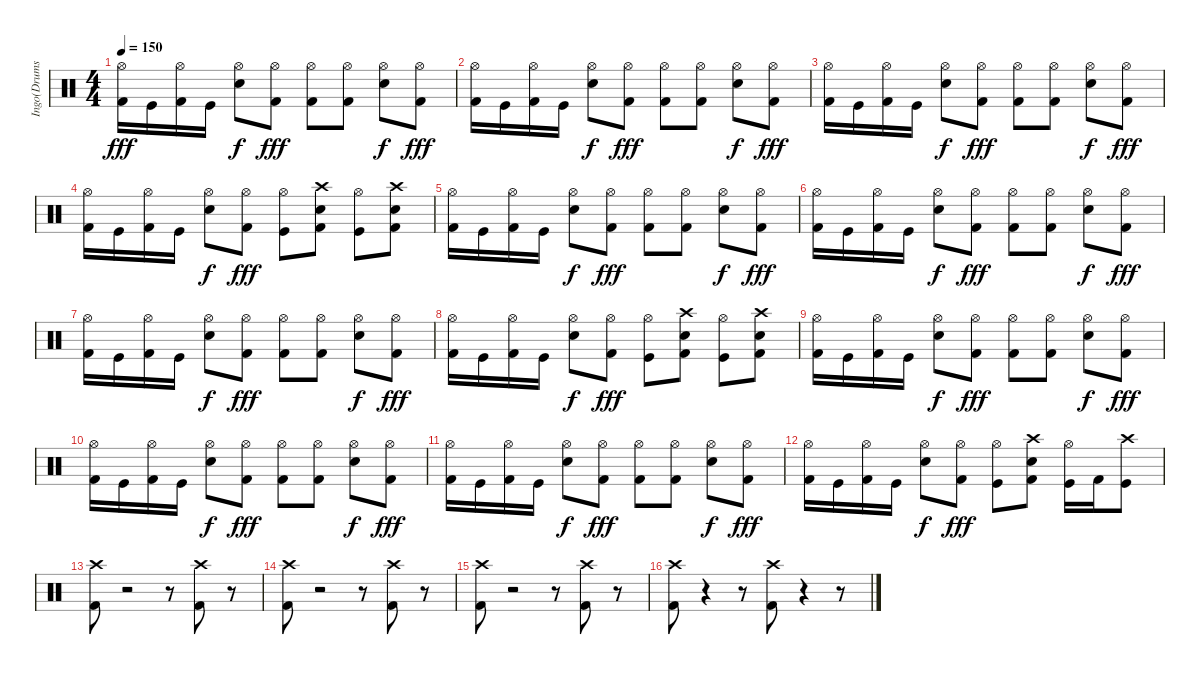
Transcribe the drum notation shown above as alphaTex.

\track ("Ingo(Drums)" "Ingo(Drums") {instrument percussion}
\staff {score}
\articulation defaults
\ts (4 4)
\tempo 150
\clef neutral
\ks c
("Hi-Hat (open)" "Kick (hit) 2").16{dy fff} "Kick (hit)".16 ("Hi-Hat (open)" "Kick (hit) 2").16 "Kick (hit)".16 ("Hi-Hat (open)" "Electric Snare (hit)").8{dy f} ("Hi-Hat (open)" "Kick (hit) 2").8{dy fff} ("Hi-Hat (open)" "Kick (hit) 2").8 ("Hi-Hat (open)" "Kick (hit) 2").8 ("Hi-Hat (open)" "Electric Snare (hit)").8{dy f} ("Hi-Hat (open)" "Kick (hit) 2").8{dy fff} |
("Hi-Hat (open)" "Kick (hit) 2").16 "Kick (hit)".16 ("Hi-Hat (open)" "Kick (hit) 2").16 "Kick (hit)".16 ("Hi-Hat (open)" "Electric Snare (hit)").8{dy f} ("Hi-Hat (open)" "Kick (hit) 2").8{dy fff} ("Hi-Hat (open)" "Kick (hit) 2").8 ("Hi-Hat (open)" "Kick (hit) 2").8 ("Hi-Hat (open)" "Electric Snare (hit)").8{dy f} ("Hi-Hat (open)" "Kick (hit) 2").8{dy fff} |
("Hi-Hat (open)" "Kick (hit) 2").16 "Kick (hit)".16 ("Hi-Hat (open)" "Kick (hit) 2").16 "Kick (hit)".16 ("Hi-Hat (open)" "Electric Snare (hit)").8{dy f} ("Hi-Hat (open)" "Kick (hit) 2").8{dy fff} ("Hi-Hat (open)" "Kick (hit) 2").8 ("Hi-Hat (open)" "Kick (hit) 2").8 ("Hi-Hat (open)" "Electric Snare (hit)").8{dy f} ("Hi-Hat (open)" "Kick (hit) 2").8{dy fff} |
("Hi-Hat (open)" "Kick (hit) 2").16 "Kick (hit)".16 ("Hi-Hat (open)" "Kick (hit) 2").16 "Kick (hit)".16 ("Hi-Hat (open)" "Electric Snare (hit)").8{dy f} ("Hi-Hat (open)" "Kick (hit) 2").8{dy fff} ("Hi-Hat (open)" "Kick (hit)").8 ("Crash high (hit)" "Electric Snare (hit)" "Kick (hit) 2").8 ("Hi-Hat (open)" "Kick (hit)").8 ("Crash high (hit)" "Electric Snare (hit)" "Kick (hit) 2").8 |
("Hi-Hat (open)" "Kick (hit) 2").16 "Kick (hit)".16 ("Hi-Hat (open)" "Kick (hit) 2").16 "Kick (hit)".16 ("Hi-Hat (open)" "Electric Snare (hit)").8{dy f} ("Hi-Hat (open)" "Kick (hit) 2").8{dy fff} ("Hi-Hat (open)" "Kick (hit) 2").8 ("Hi-Hat (open)" "Kick (hit) 2").8 ("Hi-Hat (open)" "Electric Snare (hit)").8{dy f} ("Hi-Hat (open)" "Kick (hit) 2").8{dy fff} |
("Hi-Hat (open)" "Kick (hit) 2").16 "Kick (hit)".16 ("Hi-Hat (open)" "Kick (hit) 2").16 "Kick (hit)".16 ("Hi-Hat (open)" "Electric Snare (hit)").8{dy f} ("Hi-Hat (open)" "Kick (hit) 2").8{dy fff} ("Hi-Hat (open)" "Kick (hit) 2").8 ("Hi-Hat (open)" "Kick (hit) 2").8 ("Hi-Hat (open)" "Electric Snare (hit)").8{dy f} ("Hi-Hat (open)" "Kick (hit) 2").8{dy fff} |
("Hi-Hat (open)" "Kick (hit) 2").16 "Kick (hit)".16 ("Hi-Hat (open)" "Kick (hit) 2").16 "Kick (hit)".16 ("Hi-Hat (open)" "Electric Snare (hit)").8{dy f} ("Hi-Hat (open)" "Kick (hit) 2").8{dy fff} ("Hi-Hat (open)" "Kick (hit) 2").8 ("Hi-Hat (open)" "Kick (hit) 2").8 ("Hi-Hat (open)" "Electric Snare (hit)").8{dy f} ("Hi-Hat (open)" "Kick (hit) 2").8{dy fff} |
("Hi-Hat (open)" "Kick (hit) 2").16 "Kick (hit)".16 ("Hi-Hat (open)" "Kick (hit) 2").16 "Kick (hit)".16 ("Hi-Hat (open)" "Electric Snare (hit)").8{dy f} ("Hi-Hat (open)" "Kick (hit) 2").8{dy fff} ("Hi-Hat (open)" "Kick (hit)").8 ("Crash high (hit)" "Electric Snare (hit)" "Kick (hit) 2").8 ("Hi-Hat (open)" "Kick (hit)").8 ("Crash high (hit)" "Electric Snare (hit)" "Kick (hit) 2").8 |
("Hi-Hat (open)" "Kick (hit) 2").16 "Kick (hit)".16 ("Hi-Hat (open)" "Kick (hit) 2").16 "Kick (hit)".16 ("Hi-Hat (open)" "Electric Snare (hit)").8{dy f} ("Hi-Hat (open)" "Kick (hit) 2").8{dy fff} ("Hi-Hat (open)" "Kick (hit) 2").8 ("Hi-Hat (open)" "Kick (hit) 2").8 ("Hi-Hat (open)" "Electric Snare (hit)").8{dy f} ("Hi-Hat (open)" "Kick (hit) 2").8{dy fff} |
("Hi-Hat (open)" "Kick (hit) 2").16 "Kick (hit)".16 ("Hi-Hat (open)" "Kick (hit) 2").16 "Kick (hit)".16 ("Hi-Hat (open)" "Electric Snare (hit)").8{dy f} ("Hi-Hat (open)" "Kick (hit) 2").8{dy fff} ("Hi-Hat (open)" "Kick (hit) 2").8 ("Hi-Hat (open)" "Kick (hit) 2").8 ("Hi-Hat (open)" "Electric Snare (hit)").8{dy f} ("Hi-Hat (open)" "Kick (hit) 2").8{dy fff} |
("Hi-Hat (open)" "Kick (hit) 2").16 "Kick (hit)".16 ("Hi-Hat (open)" "Kick (hit) 2").16 "Kick (hit)".16 ("Hi-Hat (open)" "Electric Snare (hit)").8{dy f} ("Hi-Hat (open)" "Kick (hit) 2").8{dy fff} ("Hi-Hat (open)" "Kick (hit) 2").8 ("Hi-Hat (open)" "Kick (hit) 2").8 ("Hi-Hat (open)" "Electric Snare (hit)").8{dy f} ("Hi-Hat (open)" "Kick (hit) 2").8{dy fff} |
("Hi-Hat (open)" "Kick (hit) 2").16 "Kick (hit)".16 ("Hi-Hat (open)" "Kick (hit) 2").16 "Kick (hit)".16 ("Hi-Hat (open)" "Electric Snare (hit)").8{dy f} ("Hi-Hat (open)" "Kick (hit) 2").8{dy fff} ("Hi-Hat (open)" "Kick (hit)").8 ("Crash high (hit)" "Electric Snare (hit)" "Kick (hit) 2").8 ("Hi-Hat (open)" "Kick (hit)").16 "Kick (hit) 2".16 ("Crash high (hit)" "Kick (hit)").8 |
("Crash high (hit)" "Kick (hit) 2").8 r.2 r.8 ("Crash high (hit)" "Kick (hit) 2").8 r.8 |
("Crash high (hit)" "Kick (hit) 2").8 r.2 r.8 ("Crash high (hit)" "Kick (hit) 2").8 r.8 |
("Crash high (hit)" "Kick (hit) 2").8 r.2 r.8 ("Crash high (hit)" "Kick (hit) 2").8 r.8 |
("Crash high (hit)" "Kick (hit) 2").8 r.4 r.8 ("Crash high (hit)" "Kick (hit) 2").8 r.4 r.8
